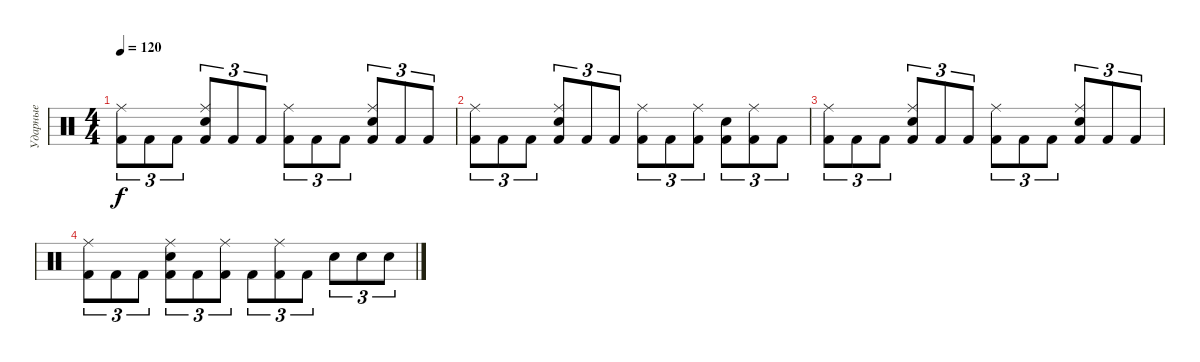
\track ("Ударные" "Ударные") {instrument percussion}
\staff {score}
\articulation defaults
\ts (4 4)
\tempo 120
\clef neutral
\ks c
("Kick (hit) 2" "Ride (middle)").8{tu (3 2) dy f} "Kick (hit) 2".8{tu (3 2)} "Kick (hit) 2".8{tu (3 2)} ("Kick (hit) 2" "Snare (hit) 2" "Ride (middle)").8{tu (3 2)} "Kick (hit) 2".8{tu (3 2)} "Kick (hit) 2".8{tu (3 2)} ("Kick (hit) 2" "Ride (middle)").8{tu (3 2)} "Kick (hit) 2".8{tu (3 2)} "Kick (hit) 2".8{tu (3 2)} ("Kick (hit) 2" "Snare (hit) 2" "Ride (middle)").8{tu (3 2)} "Kick (hit) 2".8{tu (3 2)} "Kick (hit) 2".8{tu (3 2)} |
("Kick (hit) 2" "Ride (middle)").8{tu (3 2)} "Kick (hit) 2".8{tu (3 2)} "Kick (hit) 2".8{tu (3 2)} ("Kick (hit) 2" "Snare (hit) 2" "Ride (middle)").8{tu (3 2)} "Kick (hit) 2".8{tu (3 2)} "Kick (hit) 2".8{tu (3 2)} ("Kick (hit) 2" "Ride (middle)").8{tu (3 2)} "Kick (hit) 2".8{tu (3 2)} ("Kick (hit) 2" "Ride (middle)").8{tu (3 2)} ("Kick (hit) 2" "Snare (hit) 2").8{tu (3 2)} ("Kick (hit) 2" "Ride (middle)").8{tu (3 2)} "Kick (hit) 2".8{tu (3 2)} |
("Kick (hit) 2" "Ride (middle)").8{tu (3 2)} "Kick (hit) 2".8{tu (3 2)} "Kick (hit) 2".8{tu (3 2)} ("Kick (hit) 2" "Snare (hit) 2" "Ride (middle)").8{tu (3 2)} "Kick (hit) 2".8{tu (3 2)} "Kick (hit) 2".8{tu (3 2)} ("Kick (hit) 2" "Ride (middle)").8{tu (3 2)} "Kick (hit) 2".8{tu (3 2)} "Kick (hit) 2".8{tu (3 2)} ("Kick (hit) 2" "Snare (hit) 2" "Ride (middle)").8{tu (3 2)} "Kick (hit) 2".8{tu (3 2)} "Kick (hit) 2".8{tu (3 2)} |
("Kick (hit) 2" "Ride (middle)").8{tu (3 2)} "Kick (hit) 2".8{tu (3 2)} "Kick (hit) 2".8{tu (3 2)} ("Kick (hit) 2" "Snare (hit) 2" "Ride (middle)").8{tu (3 2)} "Kick (hit) 2".8{tu (3 2)} ("Kick (hit) 2" "Ride (middle)").8{tu (3 2)} "Kick (hit) 2".8{tu (3 2)} ("Kick (hit) 2" "Ride (middle)").8{tu (3 2)} "Kick (hit) 2".8{tu (3 2)} "Snare (hit) 2".8{tu (3 2)} "Snare (hit) 2".8{tu (3 2)} "Snare (hit) 2".8{tu (3 2)}
